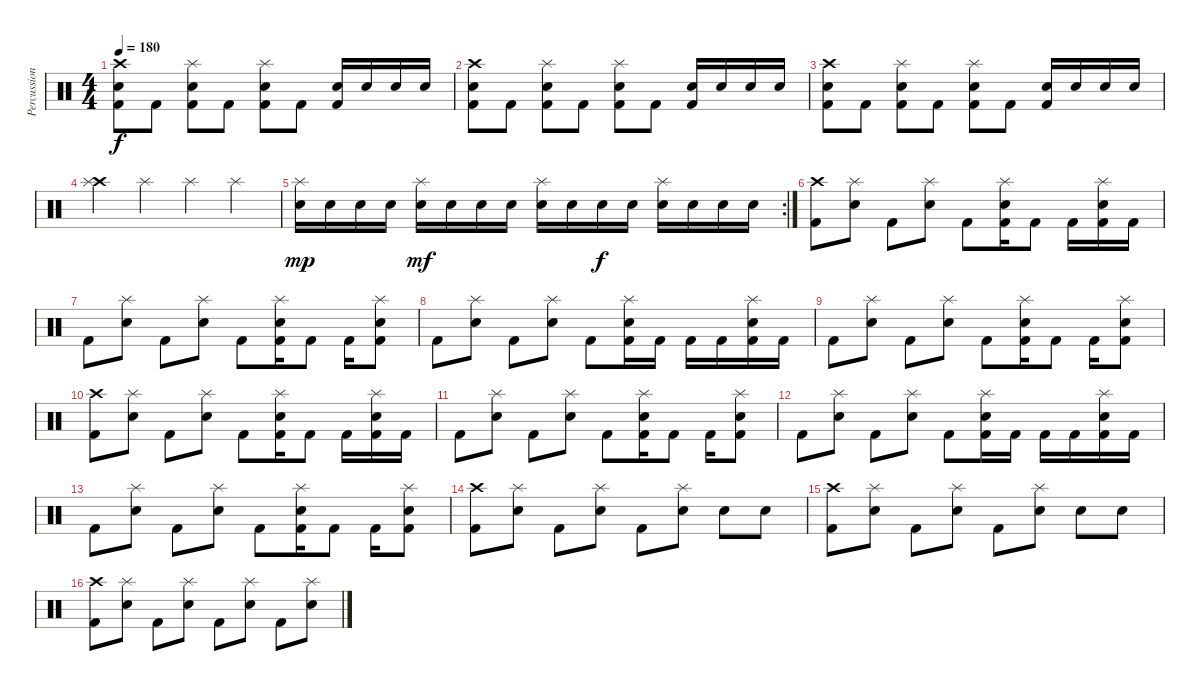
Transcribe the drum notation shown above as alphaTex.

\track ("Percussion" "Percussion") {instrument percussion}
\staff {score}
\articulation defaults
\ts (4 4)
\tempo 180
\clef neutral
\ks c
("Crash high (hit)" "Snare (hit) 2" "Kick (hit) 2").8{dy f} "Kick (hit) 2".8 ("Splash (hit)" "Snare (hit) 2" "Kick (hit) 2").8 "Kick (hit) 2".8 ("Splash (hit)" "Snare (hit) 2" "Kick (hit) 2").8 "Kick (hit) 2".8 ("Snare (hit) 2" "Kick (hit) 2").16 "Snare (hit) 2".16 "Snare (hit) 2".16 "Snare (hit) 2".16 |
("Crash high (hit)" "Snare (hit) 2" "Kick (hit) 2").8 "Kick (hit) 2".8 ("Splash (hit)" "Snare (hit) 2" "Kick (hit) 2").8 "Kick (hit) 2".8 ("Splash (hit)" "Snare (hit) 2" "Kick (hit) 2").8 "Kick (hit) 2".8 ("Snare (hit) 2" "Kick (hit) 2").16 "Snare (hit) 2".16 "Snare (hit) 2".16 "Snare (hit) 2".16 |
("Crash high (hit)" "Snare (hit) 2" "Kick (hit) 2").8 "Kick (hit) 2".8 ("Splash (hit)" "Snare (hit) 2" "Kick (hit) 2").8 "Kick (hit) 2".8 ("Splash (hit)" "Snare (hit) 2" "Kick (hit) 2").8 "Kick (hit) 2".8 ("Snare (hit) 2" "Kick (hit) 2").16 "Snare (hit) 2".16 "Snare (hit) 2".16 "Snare (hit) 2".16 |
("Crash high (hit)" "Splash (hit)").4 "Splash (hit)".4 "Splash (hit)".4 "Splash (hit)".4 |
\rc 2
("Splash (hit)" "Snare (hit) 2").16{dy mp} "Snare (hit) 2".16 "Snare (hit) 2".16 "Snare (hit) 2".16 ("Splash (hit)" "Snare (hit) 2").16{dy mf} "Snare (hit) 2".16 "Snare (hit) 2".16 "Snare (hit) 2".16 ("Splash (hit)" "Snare (hit) 2").16 "Snare (hit) 2".16 "Snare (hit) 2".16{dy f} "Snare (hit) 2".16 ("Splash (hit)" "Snare (hit) 2").16 "Snare (hit) 2".16 "Snare (hit) 2".16 "Snare (hit) 2".16 |
("Crash high (hit)" "Kick (hit) 2").8 ("Splash (hit)" "Snare (hit) 2").8 "Kick (hit) 2".8 ("Splash (hit)" "Snare (hit) 2").8 "Kick (hit) 2".8 ("Splash (hit)" "Snare (hit) 2" "Kick (hit) 2").16 "Kick (hit) 2".8 "Kick (hit) 2".16 ("Splash (hit)" "Snare (hit) 2" "Kick (hit) 2").16 "Kick (hit) 2".16 |
"Kick (hit) 2".8 ("Splash (hit)" "Snare (hit) 2").8 "Kick (hit) 2".8 ("Splash (hit)" "Snare (hit) 2").8 "Kick (hit) 2".8 ("Splash (hit)" "Snare (hit) 2" "Kick (hit) 2").16 "Kick (hit) 2".8 "Kick (hit) 2".16 ("Splash (hit)" "Snare (hit) 2" "Kick (hit) 2").8 |
"Kick (hit) 2".8 ("Splash (hit)" "Snare (hit) 2").8 "Kick (hit) 2".8 ("Splash (hit)" "Snare (hit) 2").8 "Kick (hit) 2".8 ("Splash (hit)" "Snare (hit) 2" "Kick (hit) 2").16 "Kick (hit) 2".16 "Kick (hit) 2".16 "Kick (hit) 2".16 ("Splash (hit)" "Snare (hit) 2" "Kick (hit) 2").16 "Kick (hit) 2".16 |
"Kick (hit) 2".8 ("Splash (hit)" "Snare (hit) 2").8 "Kick (hit) 2".8 ("Splash (hit)" "Snare (hit) 2").8 "Kick (hit) 2".8 ("Splash (hit)" "Snare (hit) 2" "Kick (hit) 2").16 "Kick (hit) 2".8 "Kick (hit) 2".16 ("Splash (hit)" "Snare (hit) 2" "Kick (hit) 2").8 |
("Crash high (hit)" "Kick (hit) 2").8 ("Splash (hit)" "Snare (hit) 2").8 "Kick (hit) 2".8 ("Splash (hit)" "Snare (hit) 2").8 "Kick (hit) 2".8 ("Splash (hit)" "Snare (hit) 2" "Kick (hit) 2").16 "Kick (hit) 2".8 "Kick (hit) 2".16 ("Splash (hit)" "Snare (hit) 2" "Kick (hit) 2").16 "Kick (hit) 2".16 |
"Kick (hit) 2".8 ("Splash (hit)" "Snare (hit) 2").8 "Kick (hit) 2".8 ("Splash (hit)" "Snare (hit) 2").8 "Kick (hit) 2".8 ("Splash (hit)" "Snare (hit) 2" "Kick (hit) 2").16 "Kick (hit) 2".8 "Kick (hit) 2".16 ("Splash (hit)" "Snare (hit) 2" "Kick (hit) 2").8 |
"Kick (hit) 2".8 ("Splash (hit)" "Snare (hit) 2").8 "Kick (hit) 2".8 ("Splash (hit)" "Snare (hit) 2").8 "Kick (hit) 2".8 ("Splash (hit)" "Snare (hit) 2" "Kick (hit) 2").16 "Kick (hit) 2".16 "Kick (hit) 2".16 "Kick (hit) 2".16 ("Splash (hit)" "Snare (hit) 2" "Kick (hit) 2").16 "Kick (hit) 2".16 |
"Kick (hit) 2".8 ("Splash (hit)" "Snare (hit) 2").8 "Kick (hit) 2".8 ("Splash (hit)" "Snare (hit) 2").8 "Kick (hit) 2".8 ("Splash (hit)" "Snare (hit) 2" "Kick (hit) 2").16 "Kick (hit) 2".8 "Kick (hit) 2".16 ("Splash (hit)" "Snare (hit) 2" "Kick (hit) 2").8 |
("Crash high (hit)" "Kick (hit) 2").8 ("Splash (hit)" "Snare (hit) 2").8 "Kick (hit) 2".8 ("Splash (hit)" "Snare (hit) 2").8 "Kick (hit) 2".8 ("Splash (hit)" "Snare (hit) 2").8 "Snare (hit) 2".8 "Snare (hit) 2".8 |
("Crash high (hit)" "Kick (hit) 2").8 ("Splash (hit)" "Snare (hit) 2").8 "Kick (hit) 2".8 ("Splash (hit)" "Snare (hit) 2").8 "Kick (hit) 2".8 ("Splash (hit)" "Snare (hit) 2").8 "Snare (hit) 2".8 "Snare (hit) 2".8 |
("Crash high (hit)" "Kick (hit) 2").8 ("Splash (hit)" "Snare (hit) 2").8 "Kick (hit) 2".8 ("Splash (hit)" "Snare (hit) 2").8 "Kick (hit) 2".8 ("Splash (hit)" "Snare (hit) 2").8 "Kick (hit) 2".8 ("Splash (hit)" "Snare (hit) 2").8
